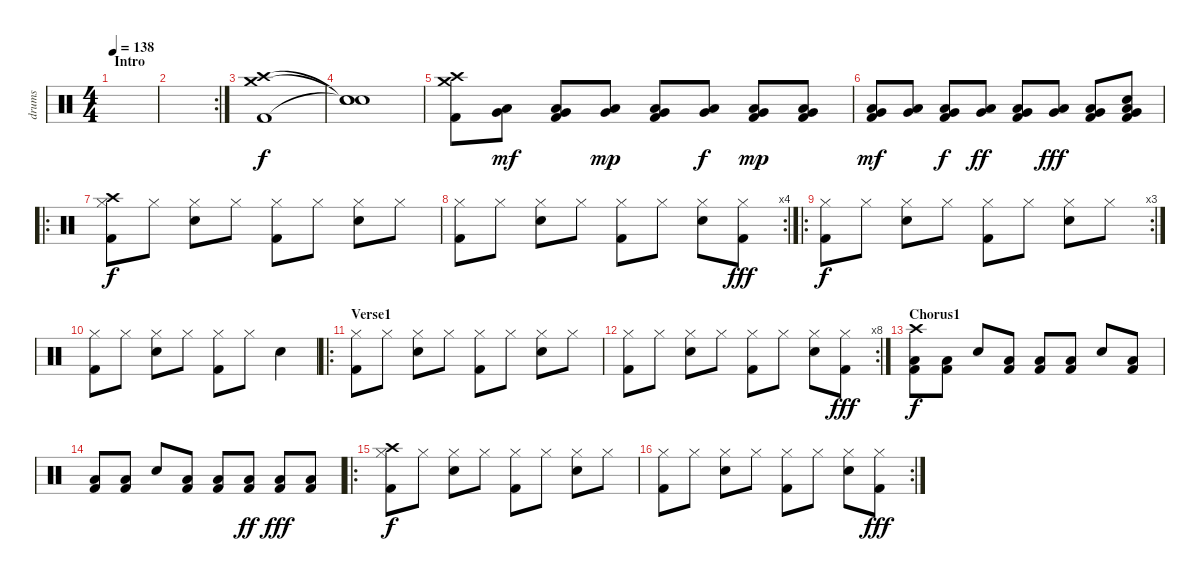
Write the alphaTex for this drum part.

\track ("drums" "drums") {instrument percussion}
\staff {score}
\articulation defaults
\ts (4 4)
\section ("" "Intro")
\tempo 138
\clef neutral
\ks c
|
\rc 2
|
("Crash medium (hit)" "Crash high (hit)" "Kick (hit) 2").1 |
("Snare (hit)"{t} "Snare (hit)"{t} "Snare (hit)"{t}).1{dy f} |
("Crash medium (hit)" "Crash high (hit)" "Kick (hit) 2").8 ("Very Low Tom (hit)" "Low Floor Tom (hit)").8{dy mf} ("Very Low Tom (hit)" "Low Floor Tom (hit)" "Kick (hit) 2").8 ("Very Low Tom (hit)" "Low Floor Tom (hit)").8{dy mp} ("Very Low Tom (hit)" "Low Floor Tom (hit)" "Kick (hit) 2").8 ("Very Low Tom (hit)" "Low Floor Tom (hit)").8{dy f} ("Very Low Tom (hit)" "Low Floor Tom (hit)" "Kick (hit) 2").8{dy mp} ("Very Low Tom (hit)" "Low Floor Tom (hit)" "Kick (hit) 2").8 |
("Very Low Tom (hit)" "Low Floor Tom (hit)" "Kick (hit) 2").8{dy mf} ("Very Low Tom (hit)" "Low Floor Tom (hit)").8 ("Very Low Tom (hit)" "Low Floor Tom (hit)" "Kick (hit) 2").8{dy f} ("Very Low Tom (hit)" "Low Floor Tom (hit)").8{dy ff} ("Very Low Tom (hit)" "Low Floor Tom (hit)" "Kick (hit) 2").8 ("Very Low Tom (hit)" "Low Floor Tom (hit)").8{dy fff} ("Very Low Tom (hit)" "Low Floor Tom (hit)" "Kick (hit) 2").8 ("Electric Snare (hit)" "Very Low Tom (hit)" "Low Floor Tom (hit)" "Kick (hit) 2").8 |
\ro
("Crash high (hit)" "Hi-Hat (closed)" "Kick (hit) 2").8{dy f} "Hi-Hat (closed)".8 ("Hi-Hat (closed)" "Electric Snare (hit)").8 "Hi-Hat (closed)".8 ("Hi-Hat (closed)" "Kick (hit) 2").8 "Hi-Hat (closed)".8 ("Hi-Hat (closed)" "Electric Snare (hit)").8 "Hi-Hat (closed)".8 |
\rc 4
("Hi-Hat (closed)" "Kick (hit) 2").8 "Hi-Hat (closed)".8 ("Hi-Hat (closed)" "Electric Snare (hit)").8 "Hi-Hat (closed)".8 ("Hi-Hat (closed)" "Kick (hit) 2").8 "Hi-Hat (closed)".8 ("Hi-Hat (closed)" "Electric Snare (hit)").8 ("Hi-Hat (closed)" "Kick (hit) 2").8{dy fff} |
\ro
\rc 3
("Hi-Hat (closed)" "Kick (hit) 2").8{dy f} "Hi-Hat (closed)".8 ("Hi-Hat (closed)" "Electric Snare (hit)").8 "Hi-Hat (closed)".8 ("Hi-Hat (closed)" "Kick (hit) 2").8 "Hi-Hat (closed)".8 ("Hi-Hat (closed)" "Electric Snare (hit)").8 "Hi-Hat (closed)".8 |
("Hi-Hat (closed)" "Kick (hit) 2").8 "Hi-Hat (closed)".8 ("Hi-Hat (closed)" "Electric Snare (hit)").8 "Hi-Hat (closed)".8 ("Hi-Hat (closed)" "Kick (hit) 2").8 "Hi-Hat (closed)".8 "Electric Snare (hit)".4 |
\ro
\section ("" "Verse1")
("Hi-Hat (closed)" "Kick (hit) 2").8 "Hi-Hat (closed)".8 ("Hi-Hat (closed)" "Electric Snare (hit)").8 "Hi-Hat (closed)".8 ("Hi-Hat (closed)" "Kick (hit) 2").8 "Hi-Hat (closed)".8 ("Hi-Hat (closed)" "Electric Snare (hit)").8 "Hi-Hat (closed)".8 |
\rc 8
("Hi-Hat (closed)" "Kick (hit) 2").8 "Hi-Hat (closed)".8 ("Hi-Hat (closed)" "Electric Snare (hit)").8 "Hi-Hat (closed)".8 ("Hi-Hat (closed)" "Kick (hit) 2").8 "Hi-Hat (closed)".8 ("Hi-Hat (closed)" "Electric Snare (hit)").8 ("Hi-Hat (closed)" "Kick (hit) 2").8{dy fff} |
\section ("" "Chorus1")
("Crash high (hit)" "Low Floor Tom (hit)" "Kick (hit) 2").8{dy f} ("Low Floor Tom (hit)" "Kick (hit) 2").8 "Electric Snare (hit)".8 ("Low Floor Tom (hit)" "Kick (hit) 2").8 ("Low Floor Tom (hit)" "Kick (hit) 2").8 ("Low Floor Tom (hit)" "Kick (hit) 2").8 "Electric Snare (hit)".8 ("Low Floor Tom (hit)" "Kick (hit) 2").8 |
("Low Floor Tom (hit)" "Kick (hit) 2").8 ("Low Floor Tom (hit)" "Kick (hit) 2").8 "Electric Snare (hit)".8 ("Low Floor Tom (hit)" "Kick (hit) 2").8 ("Low Floor Tom (hit)" "Kick (hit) 2").8 ("Low Floor Tom (hit)" "Kick (hit) 2").8{dy ff} ("Low Floor Tom (hit)" "Kick (hit) 2").8{dy fff} ("Low Floor Tom (hit)" "Kick (hit) 2").8 |
\ro
("Crash high (hit)" "Hi-Hat (closed)" "Kick (hit) 2").8{dy f} "Hi-Hat (closed)".8 ("Hi-Hat (closed)" "Electric Snare (hit)").8 "Hi-Hat (closed)".8 ("Hi-Hat (closed)" "Kick (hit) 2").8 "Hi-Hat (closed)".8 ("Hi-Hat (closed)" "Electric Snare (hit)").8 "Hi-Hat (closed)".8 |
\rc 2
("Hi-Hat (closed)" "Kick (hit) 2").8 "Hi-Hat (closed)".8 ("Hi-Hat (closed)" "Electric Snare (hit)").8 "Hi-Hat (closed)".8 ("Hi-Hat (closed)" "Kick (hit) 2").8 "Hi-Hat (closed)".8 ("Hi-Hat (closed)" "Electric Snare (hit)").8 ("Hi-Hat (closed)" "Kick (hit) 2").8{dy fff}
